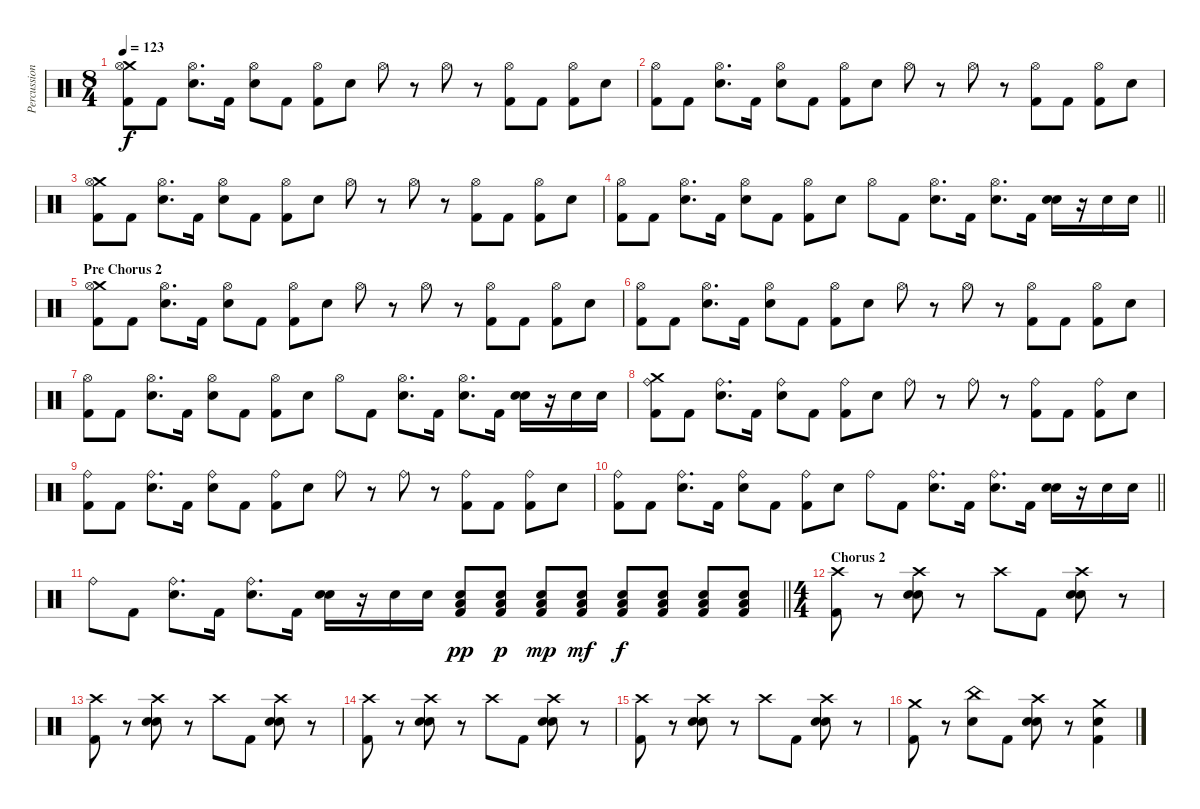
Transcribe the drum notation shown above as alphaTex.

\track ("Percussion" "Percussion") {instrument percussion}
\staff {score}
\articulation defaults
\ts (8 4)
\tempo 123
\clef neutral
\ks c
("Crash medium (hit)" "Hi-Hat (open)" "Kick (hit) 2").8{dy f} "Kick (hit) 2".8 ("Hi-Hat (open)" "Snare (hit) 2").8{d} "Kick (hit) 2".16 ("Hi-Hat (open)" "Snare (hit) 2").8 "Kick (hit) 2".8 ("Hi-Hat (open)" "Kick (hit) 2").8 "Snare (hit) 2".8 "Hi-Hat (open)".8 r.8 "Hi-Hat (open)".8 r.8 ("Hi-Hat (open)" "Kick (hit) 2").8 "Kick (hit) 2".8 ("Hi-Hat (open)" "Kick (hit) 2").8 "Snare (hit) 2".8 |
("Hi-Hat (open)" "Kick (hit) 2").8 "Kick (hit) 2".8 ("Hi-Hat (open)" "Snare (hit) 2").8{d} "Kick (hit) 2".16 ("Hi-Hat (open)" "Snare (hit) 2").8 "Kick (hit) 2".8 ("Hi-Hat (open)" "Kick (hit) 2").8 "Snare (hit) 2".8 "Hi-Hat (open)".8 r.8 "Hi-Hat (open)".8 r.8 ("Hi-Hat (open)" "Kick (hit) 2").8 "Kick (hit) 2".8 ("Hi-Hat (open)" "Kick (hit) 2").8 "Snare (hit) 2".8 |
("Crash medium (hit)" "Hi-Hat (open)" "Kick (hit) 2").8 "Kick (hit) 2".8 ("Hi-Hat (open)" "Snare (hit) 2").8{d} "Kick (hit) 2".16 ("Hi-Hat (open)" "Snare (hit) 2").8 "Kick (hit) 2".8 ("Hi-Hat (open)" "Kick (hit) 2").8 "Snare (hit) 2".8 "Hi-Hat (open)".8 r.8 "Hi-Hat (open)".8 r.8 ("Hi-Hat (open)" "Kick (hit) 2").8 "Kick (hit) 2".8 ("Hi-Hat (open)" "Kick (hit) 2").8 "Snare (hit) 2".8 |
\barLineRight lightlight
("Hi-Hat (open)" "Kick (hit) 2").8 "Kick (hit) 2".8 ("Hi-Hat (open)" "Snare (hit) 2").8{d} "Kick (hit) 2".16 ("Hi-Hat (open)" "Snare (hit) 2").8 "Kick (hit) 2".8 ("Hi-Hat (open)" "Kick (hit) 2").8 "Snare (hit) 2".8 "Hi-Hat (open)".8 "Kick (hit) 2".8 ("Hi-Hat (open)" "Snare (hit) 2").8{d} "Kick (hit) 2".16 ("Hi-Hat (open)" "Snare (hit) 2").8{d} "Kick (hit) 2".16 ("Snare (hit) 2" "Snare (hit) 2").16 r.16 "Snare (hit) 2".16 "Snare (hit) 2".16 |
\section ("" "Pre Chorus 2")
("Crash medium (hit)" "Hi-Hat (open)" "Kick (hit) 2").8 "Kick (hit) 2".8 ("Hi-Hat (open)" "Snare (hit) 2").8{d} "Kick (hit) 2".16 ("Hi-Hat (open)" "Snare (hit) 2").8 "Kick (hit) 2".8 ("Hi-Hat (open)" "Kick (hit) 2").8 "Snare (hit) 2".8 "Hi-Hat (open)".8 r.8 "Hi-Hat (open)".8 r.8 ("Hi-Hat (open)" "Kick (hit) 2").8 "Kick (hit) 2".8 ("Hi-Hat (open)" "Kick (hit) 2").8 "Snare (hit) 2".8 |
("Hi-Hat (open)" "Kick (hit) 2").8 "Kick (hit) 2".8 ("Hi-Hat (open)" "Snare (hit) 2").8{d} "Kick (hit) 2".16 ("Hi-Hat (open)" "Snare (hit) 2").8 "Kick (hit) 2".8 ("Hi-Hat (open)" "Kick (hit) 2").8 "Snare (hit) 2".8 "Hi-Hat (open)".8 r.8 "Hi-Hat (open)".8 r.8 ("Hi-Hat (open)" "Kick (hit) 2").8 "Kick (hit) 2".8 ("Hi-Hat (open)" "Kick (hit) 2").8 "Snare (hit) 2".8 |
("Hi-Hat (open)" "Kick (hit) 2").8 "Kick (hit) 2".8 ("Hi-Hat (open)" "Snare (hit) 2").8{d} "Kick (hit) 2".16 ("Hi-Hat (open)" "Snare (hit) 2").8 "Kick (hit) 2".8 ("Hi-Hat (open)" "Kick (hit) 2").8 "Snare (hit) 2".8 "Hi-Hat (open)".8 "Kick (hit) 2".8 ("Hi-Hat (open)" "Snare (hit) 2").8{d} "Kick (hit) 2".16 ("Hi-Hat (open)" "Snare (hit) 2").8{d} "Kick (hit) 2".16 ("Snare (hit) 2" "Snare (hit) 2").16 r.16 "Snare (hit) 2".16 "Snare (hit) 2".16 |
("Crash medium (hit)" "Ride (bell)" "Kick (hit) 2").8 "Kick (hit) 2".8 ("Ride (bell)" "Snare (hit) 2").8{d} "Kick (hit) 2".16 ("Ride (bell)" "Snare (hit) 2").8 "Kick (hit) 2".8 ("Ride (bell)" "Kick (hit) 2").8 "Snare (hit) 2".8 "Ride (bell)".8 r.8 "Ride (bell)".8 r.8 ("Ride (bell)" "Kick (hit) 2").8 "Kick (hit) 2".8 ("Ride (bell)" "Kick (hit) 2").8 "Snare (hit) 2".8 |
("Ride (bell)" "Kick (hit) 2").8 "Kick (hit) 2".8 ("Ride (bell)" "Snare (hit) 2").8{d} "Kick (hit) 2".16 ("Ride (bell)" "Snare (hit) 2").8 "Kick (hit) 2".8 ("Ride (bell)" "Kick (hit) 2").8 "Snare (hit) 2".8 "Ride (bell)".8 r.8 "Ride (bell)".8 r.8 ("Ride (bell)" "Kick (hit) 2").8 "Kick (hit) 2".8 ("Ride (bell)" "Kick (hit) 2").8 "Snare (hit) 2".8 |
\barLineRight lightlight
("Ride (bell)" "Kick (hit) 2").8 "Kick (hit) 2".8 ("Ride (bell)" "Snare (hit) 2").8{d} "Kick (hit) 2".16 ("Ride (bell)" "Snare (hit) 2").8 "Kick (hit) 2".8 ("Ride (bell)" "Kick (hit) 2").8 "Snare (hit) 2".8 "Ride (bell)".8 "Kick (hit) 2".8 ("Ride (bell)" "Snare (hit) 2").8{d} "Kick (hit) 2".16 ("Ride (bell)" "Snare (hit) 2").8{d} "Kick (hit) 2".16 ("Snare (hit) 2" "Snare (hit) 2").16 r.16 "Snare (hit) 2".16 "Snare (hit) 2".16 |
\barLineRight lightlight "Ride (bell)".8 "Kick (hit) 2".8
("Ride (bell)" "Snare (hit) 2").8{d} "Kick (hit) 2".16 ("Ride (bell)" "Snare (hit) 2").8{d} "Kick (hit) 2".16 ("Snare (hit) 2" "Snare (hit) 2").16 r.16 "Snare (hit) 2".16 "Snare (hit) 2".16 ("Snare (hit) 2" "Low Floor Tom (hit)" "Kick (hit) 2").8{dy pp} ("Snare (hit) 2" "Low Floor Tom (hit)" "Kick (hit) 2").8{dy p} ("Snare (hit) 2" "Low Floor Tom (hit)" "Kick (hit) 2").8{dy mp} ("Snare (hit) 2" "Low Floor Tom (hit)" "Kick (hit) 2").8{dy mf} ("Snare (hit) 2" "Low Floor Tom (hit)" "Kick (hit) 2").8{dy f} ("Snare (hit) 2" "Low Floor Tom (hit)" "Kick (hit) 2").8 ("Snare (hit) 2" "Low Floor Tom (hit)" "Kick (hit) 2").8 ("Snare (hit) 2" "Low Floor Tom (hit)" "Kick (hit) 2").8 |
\ts (4 4)
\section ("" "Chorus 2")
("Crash high (hit)" "Kick (hit) 2").8 r.8 ("Crash high (hit)" "Hand Clap (hit)" "Snare (hit) 2").8 r.8 "Crash high (hit)".8 "Kick (hit) 2".8 ("Crash high (hit)" "Hand Clap (hit)" "Snare (hit) 2").8 r.8 |
("Crash high (hit)" "Kick (hit) 2").8 r.8 ("Crash high (hit)" "Hand Clap (hit)" "Snare (hit) 2").8 r.8 "Crash high (hit)".8 "Kick (hit) 2".8 ("Crash high (hit)" "Hand Clap (hit)" "Snare (hit) 2").8 r.8 |
("Crash high (hit)" "Kick (hit) 2").8 r.8 ("Crash high (hit)" "Hand Clap (hit)" "Snare (hit) 2").8 r.8 "Crash high (hit)".8 "Kick (hit) 2".8 ("Crash high (hit)" "Hand Clap (hit)" "Snare (hit) 2").8 r.8 |
("Crash high (hit)" "Kick (hit) 2").8 r.8 ("Crash high (hit)" "Hand Clap (hit)" "Snare (hit) 2").8 r.8 "Crash high (hit)".8 "Kick (hit) 2".8 ("Crash high (hit)" "Hand Clap (hit)" "Snare (hit) 2").8 r.8 |
("Crash medium (hit)" "Kick (hit) 2").8 r.8 ("China (hit)" "Hand Clap (hit)").8 "Kick (hit) 2".8 ("Crash high (hit)" "Hand Clap (hit)" "Snare (hit) 2").8 r.8 ("Crash medium (hit)" "Hand Clap (hit)" "Kick (hit) 2").4
